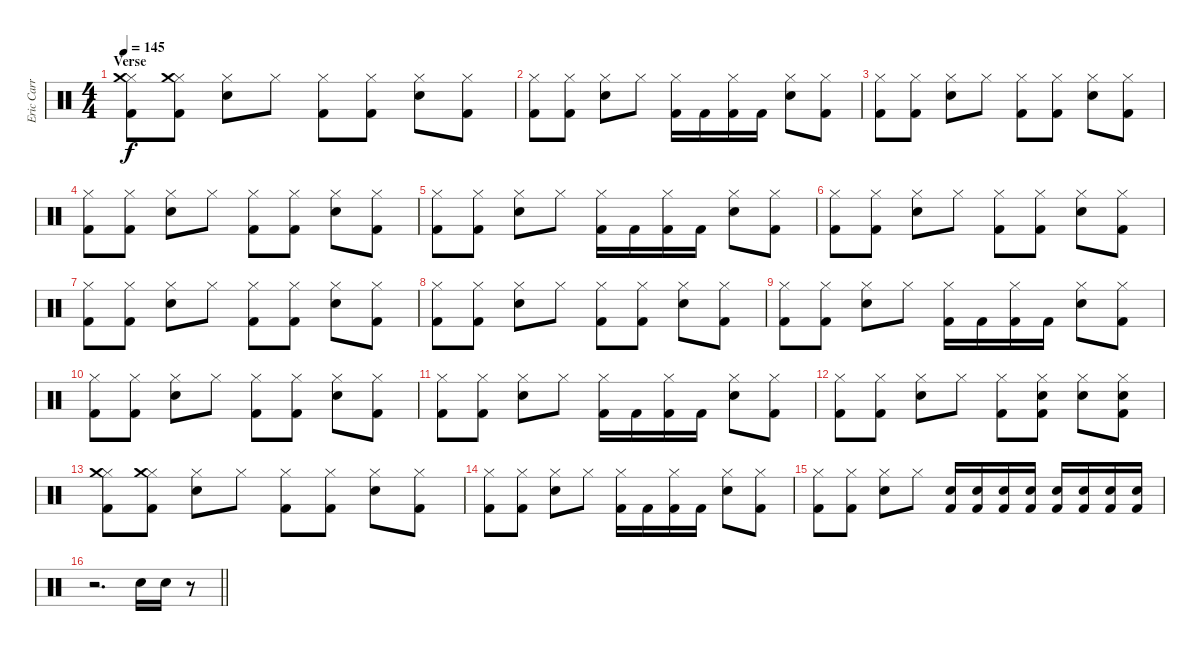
\track ("Eric Carr" "Eric Carr") {instrument percussion}
\staff {score}
\articulation defaults
\ts (4 4)
\section ("" "Verse")
\tempo 145
\clef neutral
\ks c
("Hi-Hat (closed)" "Crash medium (hit)" "Kick (hit) 2").8{dy f} ("Hi-Hat (closed)" "Crash medium (hit)" "Kick (hit) 2").8 ("Hi-Hat (closed)" "Snare (hit) 2").8 "Hi-Hat (closed)".8 ("Hi-Hat (closed)" "Kick (hit) 2").8 ("Hi-Hat (closed)" "Kick (hit) 2").8 ("Hi-Hat (closed)" "Snare (hit) 2").8 ("Hi-Hat (closed)" "Kick (hit) 2").8 |
("Hi-Hat (closed)" "Kick (hit) 2").8 ("Hi-Hat (closed)" "Kick (hit) 2").8 ("Hi-Hat (closed)" "Snare (hit) 2").8 "Hi-Hat (closed)".8 ("Hi-Hat (closed)" "Kick (hit) 2").16 "Kick (hit) 2".16 ("Hi-Hat (closed)" "Kick (hit) 2").16 "Kick (hit) 2".16 ("Hi-Hat (closed)" "Snare (hit) 2").8 ("Hi-Hat (closed)" "Kick (hit) 2").8 |
("Hi-Hat (closed)" "Kick (hit) 2").8 ("Hi-Hat (closed)" "Kick (hit) 2").8 ("Hi-Hat (closed)" "Snare (hit) 2").8 "Hi-Hat (closed)".8 ("Hi-Hat (closed)" "Kick (hit) 2").8 ("Hi-Hat (closed)" "Kick (hit) 2").8 ("Hi-Hat (closed)" "Snare (hit) 2").8 ("Hi-Hat (closed)" "Kick (hit) 2").8 |
("Hi-Hat (closed)" "Kick (hit) 2").8 ("Hi-Hat (closed)" "Kick (hit) 2").8 ("Hi-Hat (closed)" "Snare (hit) 2").8 "Hi-Hat (closed)".8 ("Hi-Hat (closed)" "Kick (hit) 2").8 ("Hi-Hat (closed)" "Kick (hit) 2").8 ("Hi-Hat (closed)" "Snare (hit) 2").8 ("Hi-Hat (closed)" "Kick (hit) 2").8 |
("Hi-Hat (closed)" "Kick (hit) 2").8 ("Hi-Hat (closed)" "Kick (hit) 2").8 ("Hi-Hat (closed)" "Snare (hit) 2").8 "Hi-Hat (closed)".8 ("Hi-Hat (closed)" "Kick (hit) 2").16 "Kick (hit) 2".16 ("Hi-Hat (closed)" "Kick (hit) 2").16 "Kick (hit) 2".16 ("Hi-Hat (closed)" "Snare (hit) 2").8 ("Hi-Hat (closed)" "Kick (hit) 2").8 |
("Hi-Hat (closed)" "Kick (hit) 2").8 ("Hi-Hat (closed)" "Kick (hit) 2").8 ("Hi-Hat (closed)" "Snare (hit) 2").8 "Hi-Hat (closed)".8 ("Hi-Hat (closed)" "Kick (hit) 2").8 ("Hi-Hat (closed)" "Kick (hit) 2").8 ("Hi-Hat (closed)" "Snare (hit) 2").8 ("Hi-Hat (closed)" "Kick (hit) 2").8 |
("Hi-Hat (closed)" "Kick (hit) 2").8 ("Hi-Hat (closed)" "Kick (hit) 2").8 ("Hi-Hat (closed)" "Snare (hit) 2").8 "Hi-Hat (closed)".8 ("Hi-Hat (closed)" "Kick (hit) 2").8 ("Hi-Hat (closed)" "Kick (hit) 2").8 ("Hi-Hat (closed)" "Snare (hit) 2").8 ("Hi-Hat (closed)" "Kick (hit) 2").8 |
("Hi-Hat (closed)" "Kick (hit) 2").8 ("Hi-Hat (closed)" "Kick (hit) 2").8 ("Hi-Hat (closed)" "Snare (hit) 2").8 "Hi-Hat (closed)".8 ("Hi-Hat (closed)" "Kick (hit) 2").8 ("Hi-Hat (closed)" "Kick (hit) 2").8 ("Hi-Hat (closed)" "Snare (hit) 2").8 ("Hi-Hat (closed)" "Kick (hit) 2").8 |
("Hi-Hat (closed)" "Kick (hit) 2").8 ("Hi-Hat (closed)" "Kick (hit) 2").8 ("Hi-Hat (closed)" "Snare (hit) 2").8 "Hi-Hat (closed)".8 ("Hi-Hat (closed)" "Kick (hit) 2").16 "Kick (hit) 2".16 ("Hi-Hat (closed)" "Kick (hit) 2").16 "Kick (hit) 2".16 ("Hi-Hat (closed)" "Snare (hit) 2").8 ("Hi-Hat (closed)" "Kick (hit) 2").8 |
("Hi-Hat (closed)" "Kick (hit) 2").8 ("Hi-Hat (closed)" "Kick (hit) 2").8 ("Hi-Hat (closed)" "Snare (hit) 2").8 "Hi-Hat (closed)".8 ("Hi-Hat (closed)" "Kick (hit) 2").8 ("Hi-Hat (closed)" "Kick (hit) 2").8 ("Hi-Hat (closed)" "Snare (hit) 2").8 ("Hi-Hat (closed)" "Kick (hit) 2").8 |
("Hi-Hat (closed)" "Kick (hit) 2").8 ("Hi-Hat (closed)" "Kick (hit) 2").8 ("Hi-Hat (closed)" "Snare (hit) 2").8 "Hi-Hat (closed)".8 ("Hi-Hat (closed)" "Kick (hit) 2").16 "Kick (hit) 2".16 ("Hi-Hat (closed)" "Kick (hit) 2").16 "Kick (hit) 2".16 ("Hi-Hat (closed)" "Snare (hit) 2").8 ("Hi-Hat (closed)" "Kick (hit) 2").8 |
("Hi-Hat (closed)" "Kick (hit) 2").8 ("Hi-Hat (closed)" "Kick (hit) 2").8 ("Hi-Hat (closed)" "Snare (hit) 2").8 "Hi-Hat (closed)".8 ("Hi-Hat (closed)" "Kick (hit) 2").8 ("Hi-Hat (closed)" "Snare (hit) 2" "Kick (hit) 2").8 ("Hi-Hat (closed)" "Snare (hit) 2").8 ("Hi-Hat (closed)" "Snare (hit) 2" "Kick (hit) 2").8 |
("Hi-Hat (closed)" "Crash medium (hit)" "Kick (hit) 2").8 ("Hi-Hat (closed)" "Crash medium (hit)" "Kick (hit) 2").8 ("Hi-Hat (closed)" "Snare (hit) 2").8 "Hi-Hat (closed)".8 ("Hi-Hat (closed)" "Kick (hit) 2").8 ("Hi-Hat (closed)" "Kick (hit) 2").8 ("Hi-Hat (closed)" "Snare (hit) 2").8 ("Hi-Hat (closed)" "Kick (hit) 2").8 |
("Hi-Hat (closed)" "Kick (hit) 2").8 ("Hi-Hat (closed)" "Kick (hit) 2").8 ("Hi-Hat (closed)" "Snare (hit) 2").8 "Hi-Hat (closed)".8 ("Hi-Hat (closed)" "Kick (hit) 2").16 "Kick (hit) 2".16 ("Hi-Hat (closed)" "Kick (hit) 2").16 "Kick (hit) 2".16 ("Hi-Hat (closed)" "Snare (hit) 2").8 ("Hi-Hat (closed)" "Kick (hit) 2").8 |
("Hi-Hat (closed)" "Kick (hit) 2").8 ("Hi-Hat (closed)" "Kick (hit) 2").8 ("Hi-Hat (closed)" "Snare (hit) 2").8 "Hi-Hat (closed)".8 ("Snare (hit) 2" "Kick (hit) 2").16 ("Snare (hit) 2" "Kick (hit) 2").16 ("Snare (hit) 2" "Kick (hit) 2").16 ("Snare (hit) 2" "Kick (hit) 2").16 ("Snare (hit) 2" "Kick (hit) 2").16 ("Snare (hit) 2" "Kick (hit) 2").16 ("Snare (hit) 2" "Kick (hit) 2").16 ("Snare (hit) 2" "Kick (hit) 2").16 |
\barLineRight lightlight
r.2{d} "Snare (hit) 2".16 "Snare (hit) 2".16 r.8
